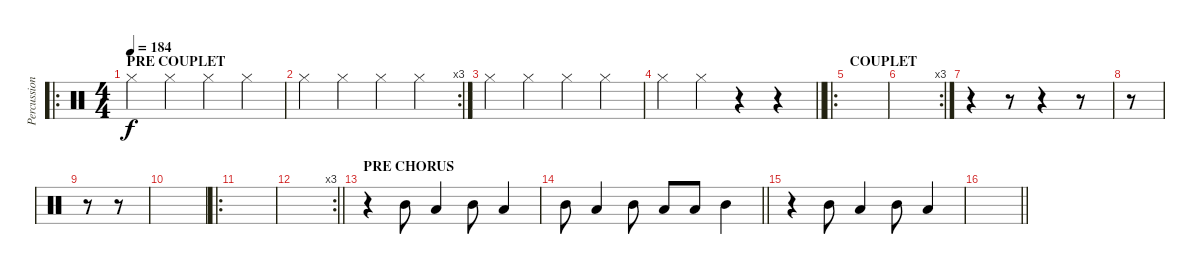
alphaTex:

\track ("Percussions" "Percussion") {instrument percussion}
\staff {score}
\articulation defaults
\ro
\ts (4 4)
\section ("" "PRE COUPLET")
\tempo 184
\clef neutral
\ks c "Hi-Hat (closed)".4{dy f} "Hi-Hat (closed)".4 "Hi-Hat (closed)".4 "Hi-Hat (closed)".4
|
\rc 3 "Hi-Hat (closed)".4 "Hi-Hat (closed)".4 "Hi-Hat (closed)".4 "Hi-Hat (closed)".4
|
"Hi-Hat (closed)".4 "Hi-Hat (closed)".4 "Hi-Hat (closed)".4 "Hi-Hat (closed)".4 |
\barLineRight lightlight "Hi-Hat (closed)".4 "Hi-Hat (closed)".4
r.4 r.4 |
\ro
\section ("" "COUPLET")
|
\rc 3
|
r.4 r.8 r.4 r.8 |
r.8 |
r.8 r.8 |
|
\ro
|
\rc 3
\barLineRight lightlight
|
\section ("" "PRE CHORUS")
r.4 "Mid Tom (hit)".8 "Low Tom (hit)".4 "Mid Tom (hit)".8 "Low Tom (hit)".4 |
\barLineRight lightlight "Mid Tom (hit)".8 "Low Tom (hit)".4 "Mid Tom (hit)".8 "Low Tom (hit)".8 "Low Tom (hit)".8 "Mid Tom (hit)".4
|
r.4 "Mid Tom (hit)".8 "Low Tom (hit)".4 "Mid Tom (hit)".8 "Low Tom (hit)".4 |
\barLineRight lightlight
